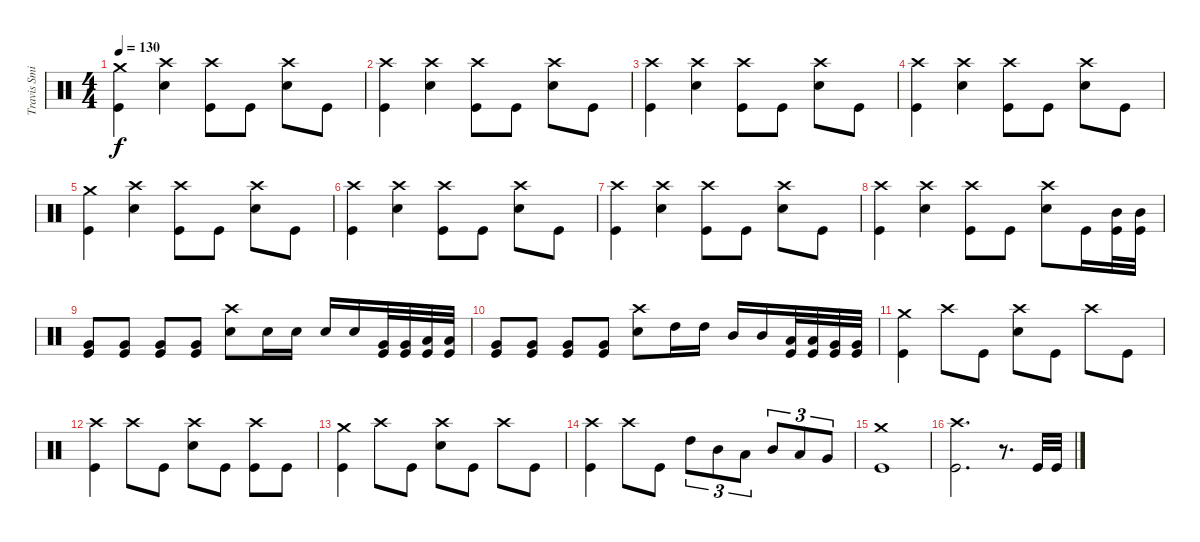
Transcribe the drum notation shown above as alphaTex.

\track ("Travis Smith" "Travis Smi") {instrument percussion}
\staff {score}
\articulation defaults
\ts (4 4)
\tempo 130
\clef neutral
\ks c
("Crash medium (hit)" "Kick (hit)").4{dy f} ("Crash high (hit)" "Snare (hit) 2").4 ("Crash high (hit)" "Kick (hit)").8 "Kick (hit)".8 ("Crash high (hit)" "Snare (hit) 2").8 "Kick (hit)".8 |
("Crash high (hit)" "Kick (hit)").4 ("Crash high (hit)" "Snare (hit) 2").4 ("Crash high (hit)" "Kick (hit)").8 "Kick (hit)".8 ("Crash high (hit)" "Snare (hit) 2").8 "Kick (hit)".8 |
("Crash high (hit)" "Kick (hit)").4 ("Crash high (hit)" "Snare (hit) 2").4 ("Crash high (hit)" "Kick (hit)").8 "Kick (hit)".8 ("Crash high (hit)" "Snare (hit) 2").8 "Kick (hit)".8 |
("Crash high (hit)" "Kick (hit)").4 ("Crash high (hit)" "Snare (hit) 2").4 ("Crash high (hit)" "Kick (hit)").8 "Kick (hit)".8 ("Crash high (hit)" "Snare (hit) 2").8 "Kick (hit)".8 |
("Crash medium (hit)" "Kick (hit)").4 ("Crash high (hit)" "Snare (hit) 2").4 ("Crash high (hit)" "Kick (hit)").8 "Kick (hit)".8 ("Crash high (hit)" "Snare (hit) 2").8 "Kick (hit)".8 |
("Crash high (hit)" "Kick (hit)").4 ("Crash high (hit)" "Snare (hit) 2").4 ("Crash high (hit)" "Kick (hit)").8 "Kick (hit)".8 ("Crash high (hit)" "Snare (hit) 2").8 "Kick (hit)".8 |
("Crash high (hit)" "Kick (hit)").4 ("Crash high (hit)" "Snare (hit) 2").4 ("Crash high (hit)" "Kick (hit)").8 "Kick (hit)".8 ("Crash high (hit)" "Snare (hit) 2").8 "Kick (hit)".8 |
("Crash high (hit)" "Kick (hit)").4 ("Crash high (hit)" "Snare (hit) 2").4 ("Crash high (hit)" "Kick (hit)").8 "Kick (hit)".8 ("Crash high (hit)" "Snare (hit) 2").8 "Kick (hit)".16 ("Mid Tom (hit)" "Kick (hit)").32 ("Mid Tom (hit)" "Kick (hit)").32 |
("Very Low Tom (hit)" "Kick (hit)").8 ("Very Low Tom (hit)" "Kick (hit)").8 ("Very Low Tom (hit)" "Kick (hit)").8 ("Very Low Tom (hit)" "Kick (hit)").8 ("Crash high (hit)" "Snare (hit) 2").8 "Snare (hit) 2".16 "Snare (hit) 2".16 "Snare (hit) 2".16 "Snare (hit) 2".16 ("Very Low Tom (hit)" "Kick (hit)").32 ("Very Low Tom (hit)" "Kick (hit)").32 ("Low Floor Tom (hit)" "Kick (hit)").32 ("Low Floor Tom (hit)" "Kick (hit)").32 |
("Very Low Tom (hit)" "Kick (hit)").8 ("Very Low Tom (hit)" "Kick (hit)").8 ("Very Low Tom (hit)" "Kick (hit)").8 ("Very Low Tom (hit)" "Kick (hit)").8 ("Crash high (hit)" "Snare (hit) 2").8 "High Tom (hit)".16 "High Tom (hit)".16 "Mid Tom (hit)".16 "Mid Tom (hit)".16 ("Low Tom (hit)" "Kick (hit)").32 ("Low Tom (hit)" "Kick (hit)").32 ("Very Low Tom (hit)" "Kick (hit)").32 ("Very Low Tom (hit)" "Kick (hit)").32 |
("Crash medium (hit)" "Kick (hit)").4 "Crash high (hit)".8 "Kick (hit)".8 ("Crash high (hit)" "Snare (hit) 2").8 "Kick (hit)".8 "Crash high (hit)".8 "Kick (hit)".8 |
("Crash high (hit)" "Kick (hit)").4 "Crash high (hit)".8 "Kick (hit)".8 ("Crash high (hit)" "Snare (hit) 2").8 "Kick (hit)".8 ("Crash high (hit)" "Kick (hit)").8 "Kick (hit)".8 |
("Crash medium (hit)" "Kick (hit)").4 "Crash high (hit)".8 "Kick (hit)".8 ("Crash high (hit)" "Snare (hit) 2").8 "Kick (hit)".8 "Crash high (hit)".8 "Kick (hit)".8 |
("Crash high (hit)" "Kick (hit)").4 "Crash high (hit)".8 "Kick (hit)".8 "High Tom (hit)".8{tu (3 2)} "Mid Tom (hit)".8{tu (3 2)} "Low Tom (hit)".8{tu (3 2)} "Mid Tom (hit)".8{tu (3 2)} "Low Tom (hit)".8{tu (3 2)} "Very Low Tom (hit)".8{tu (3 2)} |
("Crash medium (hit)" "Kick (hit)").1 |
("Crash high (hit)" "Kick (hit)").2{d} r.8{d} "Kick (hit)".32 "Kick (hit)".32
